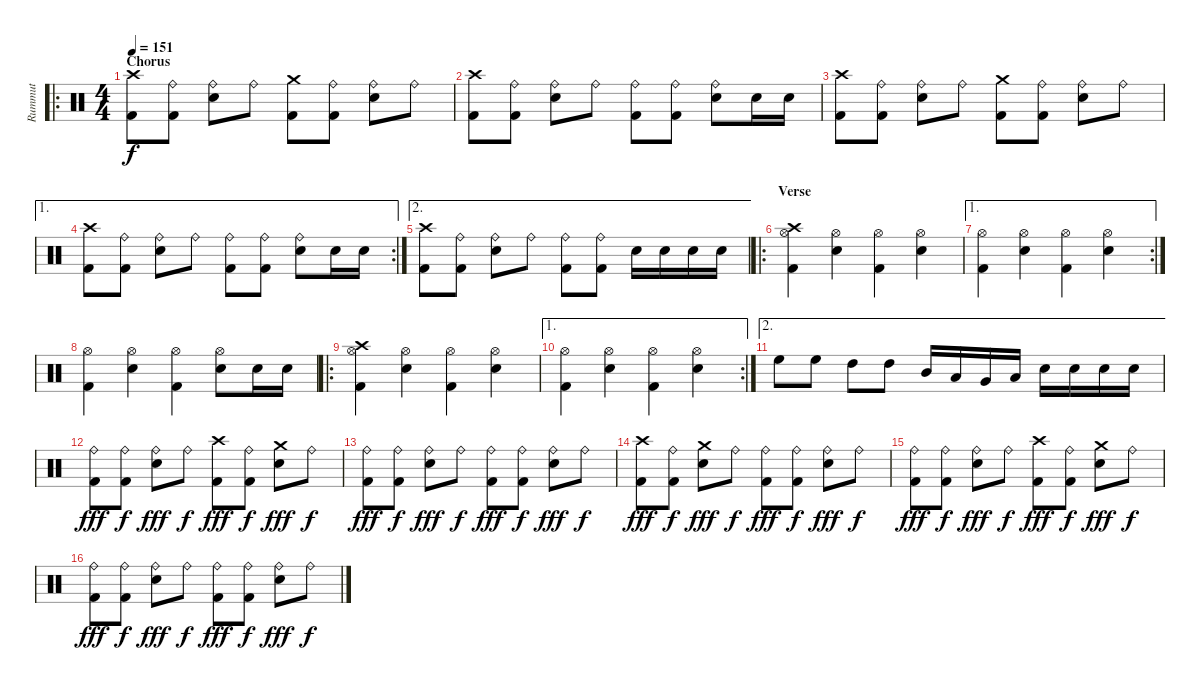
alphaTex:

\track ("Rummut" "Rummut") {instrument percussion}
\staff {score}
\articulation defaults
\ro
\ts (4 4)
\section ("" "Chorus")
\tempo 151
\clef neutral
\ks c
("Crash high (hit)" "Kick (hit) 2").8{dy f} ("Ride (bell)" "Kick (hit) 2").8 ("Ride (bell)" "Electric Snare (hit)").8 "Ride (bell)".8 ("Crash medium (hit)" "Kick (hit) 2").8 ("Ride (bell)" "Kick (hit) 2").8 ("Ride (bell)" "Electric Snare (hit)").8 "Ride (bell)".8 |
("Crash high (hit)" "Kick (hit) 2").8 ("Ride (bell)" "Kick (hit) 2").8 ("Ride (bell)" "Electric Snare (hit)").8 "Ride (bell)".8 ("Ride (bell)" "Kick (hit) 2").8 ("Ride (bell)" "Kick (hit) 2").8 ("Ride (bell)" "Electric Snare (hit)").8 "Electric Snare (hit)".16 "Electric Snare (hit)".16 |
("Crash high (hit)" "Kick (hit) 2").8 ("Ride (bell)" "Kick (hit) 2").8 ("Ride (bell)" "Electric Snare (hit)").8 "Ride (bell)".8 ("Crash medium (hit)" "Kick (hit) 2").8 ("Ride (bell)" "Kick (hit) 2").8 ("Ride (bell)" "Electric Snare (hit)").8 "Ride (bell)".8 |
\ae 1
\rc 2
("Crash high (hit)" "Kick (hit) 2").8 ("Ride (bell)" "Kick (hit) 2").8 ("Ride (bell)" "Electric Snare (hit)").8 "Ride (bell)".8 ("Ride (bell)" "Kick (hit) 2").8 ("Ride (bell)" "Kick (hit) 2").8 ("Ride (bell)" "Electric Snare (hit)").8 "Electric Snare (hit)".16 "Electric Snare (hit)".16 |
\ae 2
("Crash high (hit)" "Kick (hit) 2").8 ("Ride (bell)" "Kick (hit) 2").8 ("Ride (bell)" "Electric Snare (hit)").8 "Ride (bell)".8 ("Ride (bell)" "Kick (hit) 2").8 ("Ride (bell)" "Kick (hit) 2").8 "Electric Snare (hit)".16 "Electric Snare (hit)".16 "Electric Snare (hit)".16 "Electric Snare (hit)".16 |
\ro
\section ("" "Verse")
("Crash high (hit)" "Hi-Hat (open)" "Kick (hit) 2").4 ("Hi-Hat (open)" "Electric Snare (hit)").4 ("Hi-Hat (open)" "Kick (hit) 2").4 ("Hi-Hat (open)" "Electric Snare (hit)").4 |
\ae 1
\rc 2
("Hi-Hat (open)" "Kick (hit) 2").4 ("Hi-Hat (open)" "Electric Snare (hit)").4 ("Hi-Hat (open)" "Kick (hit) 2").4 ("Hi-Hat (open)" "Electric Snare (hit)").4 |
("Hi-Hat (open)" "Kick (hit) 2").4 ("Hi-Hat (open)" "Electric Snare (hit)").4 ("Hi-Hat (open)" "Kick (hit) 2").4 ("Hi-Hat (open)" "Electric Snare (hit)").8 "Electric Snare (hit)".16 "Electric Snare (hit)".16 |
\ro
("Crash high (hit)" "Hi-Hat (open)" "Kick (hit) 2").4 ("Hi-Hat (open)" "Electric Snare (hit)").4 ("Hi-Hat (open)" "Kick (hit) 2").4 ("Hi-Hat (open)" "Electric Snare (hit)").4 |
\ae 1
\rc 2
("Hi-Hat (open)" "Kick (hit) 2").4 ("Hi-Hat (open)" "Electric Snare (hit)").4 ("Hi-Hat (open)" "Kick (hit) 2").4 ("Hi-Hat (open)" "Electric Snare (hit)").4 |
\ae 2 "High Floor Tom (hit)".8 "High Floor Tom (hit)".8 "High Tom (hit)".8 "High Tom (hit)".8 "Mid Tom (hit)".16 "Low Tom (hit)".16 "Very Low Tom (hit)".16 "Low Floor Tom (hit)".16 "Electric Snare (hit)".16 "Electric Snare (hit)".16 "Electric Snare (hit)".16 "Electric Snare (hit)".16
|
("Ride (bell)" "Kick (hit) 2").8{dy fff} ("Ride (bell)" "Kick (hit) 2").8{dy f} ("Ride (bell)" "Electric Snare (hit)").8{dy fff} "Ride (bell)".8{dy f} ("Crash high (hit)" "Kick (hit) 2").8{dy fff} ("Ride (bell)" "Kick (hit) 2").8{dy f} ("Crash medium (hit)" "Electric Snare (hit)").8{dy fff} "Ride (bell)".8{dy f} |
("Ride (bell)" "Kick (hit) 2").8{dy fff} ("Ride (bell)" "Kick (hit) 2").8{dy f} ("Ride (bell)" "Electric Snare (hit)").8{dy fff} "Ride (bell)".8{dy f} ("Ride (bell)" "Kick (hit) 2").8{dy fff} ("Ride (bell)" "Kick (hit) 2").8{dy f} ("Ride (bell)" "Electric Snare (hit)").8{dy fff} "Ride (bell)".8{dy f} |
("Crash high (hit)" "Kick (hit) 2").8{dy fff} ("Ride (bell)" "Kick (hit) 2").8{dy f} ("Crash medium (hit)" "Electric Snare (hit)").8{dy fff} "Ride (bell)".8{dy f} ("Ride (bell)" "Kick (hit) 2").8{dy fff} ("Ride (bell)" "Kick (hit) 2").8{dy f} ("Ride (bell)" "Electric Snare (hit)").8{dy fff} "Ride (bell)".8{dy f} |
("Ride (bell)" "Kick (hit) 2").8{dy fff} ("Ride (bell)" "Kick (hit) 2").8{dy f} ("Ride (bell)" "Electric Snare (hit)").8{dy fff} "Ride (bell)".8{dy f} ("Crash high (hit)" "Kick (hit) 2").8{dy fff} ("Ride (bell)" "Kick (hit) 2").8{dy f} ("Crash medium (hit)" "Electric Snare (hit)").8{dy fff} "Ride (bell)".8{dy f} |
("Ride (bell)" "Kick (hit) 2").8{dy fff} ("Ride (bell)" "Kick (hit) 2").8{dy f} ("Ride (bell)" "Electric Snare (hit)").8{dy fff} "Ride (bell)".8{dy f} ("Ride (bell)" "Kick (hit) 2").8{dy fff} ("Ride (bell)" "Kick (hit) 2").8{dy f} ("Ride (bell)" "Electric Snare (hit)").8{dy fff} "Ride (bell)".8{dy f}
